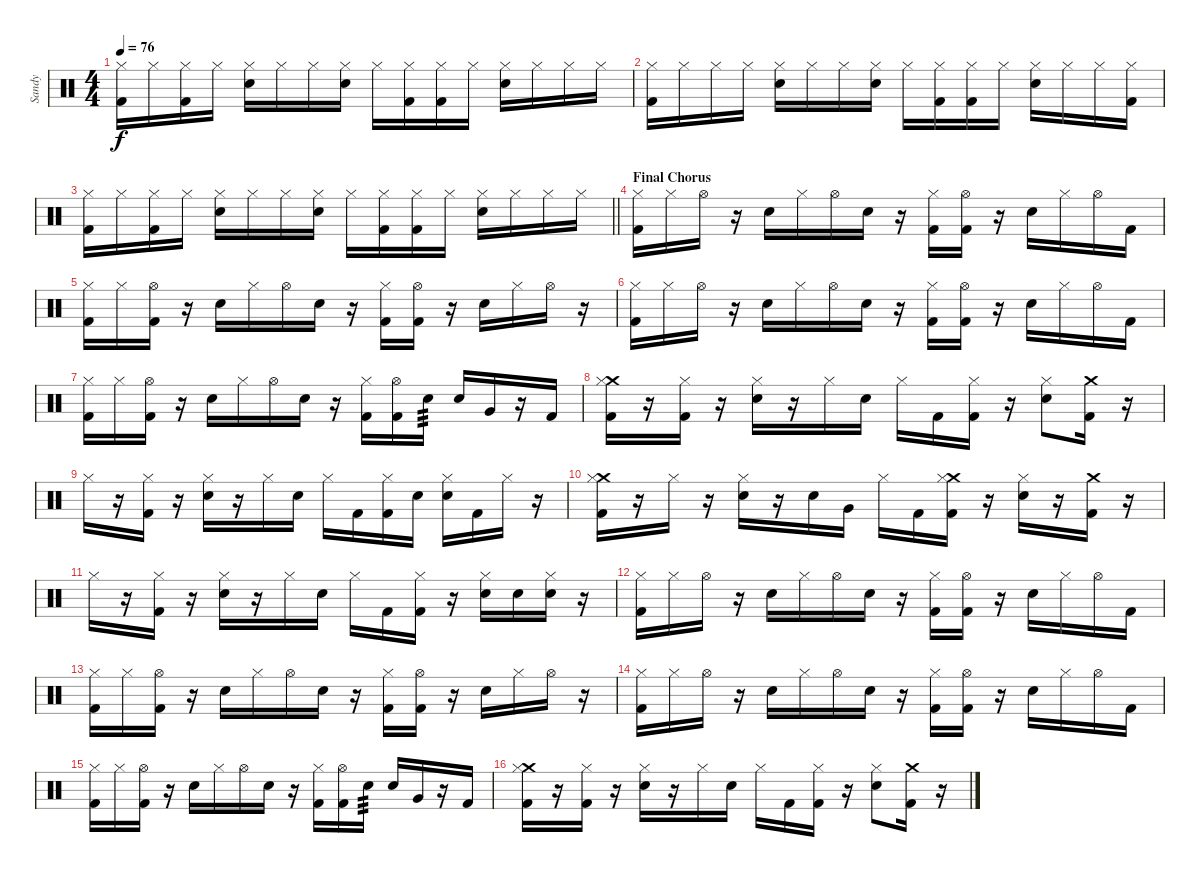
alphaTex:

\track ("Sandy" "Sandy") {instrument percussion}
\staff {score}
\articulation defaults
\ts (4 4)
\tempo 76
\clef neutral
\ks c
("Hi-Hat (closed)" "Kick (hit) 2").16{dy f} "Hi-Hat (closed)".16 ("Hi-Hat (closed)" "Kick (hit) 2").16 "Hi-Hat (closed)".16 ("Hi-Hat (closed)" "Electric Snare (hit)").16 "Hi-Hat (closed)".16 "Hi-Hat (closed)".16 ("Hi-Hat (closed)" "Electric Snare (hit)").16 "Hi-Hat (closed)".16 ("Hi-Hat (closed)" "Kick (hit) 2").16 ("Hi-Hat (closed)" "Kick (hit) 2").16 "Hi-Hat (closed)".16 ("Hi-Hat (closed)" "Electric Snare (hit)").16 "Hi-Hat (closed)".16 "Hi-Hat (closed)".16 "Hi-Hat (closed)".16 |
("Hi-Hat (closed)" "Kick (hit) 2").16 "Hi-Hat (closed)".16 "Hi-Hat (closed)".16 "Hi-Hat (closed)".16 ("Hi-Hat (closed)" "Electric Snare (hit)").16 "Hi-Hat (closed)".16 "Hi-Hat (closed)".16 ("Hi-Hat (closed)" "Electric Snare (hit)").16 "Hi-Hat (closed)".16 ("Hi-Hat (closed)" "Kick (hit) 2").16 ("Hi-Hat (closed)" "Kick (hit) 2").16 "Hi-Hat (closed)".16 ("Hi-Hat (closed)" "Electric Snare (hit)").16 "Hi-Hat (closed)".16 "Hi-Hat (closed)".16 ("Hi-Hat (closed)" "Kick (hit) 2").16 |
\barLineRight lightlight
("Hi-Hat (closed)" "Kick (hit) 2").16 "Hi-Hat (closed)".16 ("Hi-Hat (closed)" "Kick (hit) 2").16 "Hi-Hat (closed)".16 ("Hi-Hat (closed)" "Electric Snare (hit)").16 "Hi-Hat (closed)".16 "Hi-Hat (closed)".16 ("Hi-Hat (closed)" "Electric Snare (hit)").16 "Hi-Hat (closed)".16 ("Hi-Hat (closed)" "Kick (hit) 2").16 ("Hi-Hat (closed)" "Kick (hit) 2").16 "Hi-Hat (closed)".16 ("Hi-Hat (closed)" "Electric Snare (hit)").16 "Hi-Hat (closed)".16 "Hi-Hat (closed)".16 "Hi-Hat (closed)".16 |
\section ("" "Final Chorus")
("Hi-Hat (closed)" "Kick (hit) 2").16 "Hi-Hat (closed)".16 "Hi-Hat (open)".16 r.16 "Electric Snare (hit)".16 "Hi-Hat (closed)".16 "Hi-Hat (open)".16 "Electric Snare (hit)".16 r.16 ("Hi-Hat (closed)" "Kick (hit) 2").16 ("Hi-Hat (open)" "Kick (hit) 2").16 r.16 "Electric Snare (hit)".16 "Hi-Hat (closed)".16 "Hi-Hat (open)".16 "Kick (hit) 2".16 |
("Hi-Hat (closed)" "Kick (hit) 2").16 "Hi-Hat (closed)".16 ("Hi-Hat (open)" "Kick (hit) 2").16 r.16 "Electric Snare (hit)".16 "Hi-Hat (closed)".16 "Hi-Hat (open)".16 "Electric Snare (hit)".16 r.16 ("Hi-Hat (closed)" "Kick (hit) 2").16 ("Hi-Hat (open)" "Kick (hit) 2").16 r.16 "Electric Snare (hit)".16 "Hi-Hat (closed)".16 "Hi-Hat (open)".16 r.16 |
("Hi-Hat (closed)" "Kick (hit) 2").16 "Hi-Hat (closed)".16 "Hi-Hat (open)".16 r.16 "Electric Snare (hit)".16 "Hi-Hat (closed)".16 "Hi-Hat (open)".16 "Electric Snare (hit)".16 r.16 ("Hi-Hat (closed)" "Kick (hit) 2").16 ("Hi-Hat (open)" "Kick (hit) 2").16 r.16 "Electric Snare (hit)".16 "Hi-Hat (closed)".16 "Hi-Hat (open)".16 "Kick (hit) 2".16 |
("Hi-Hat (closed)" "Kick (hit) 2").16 "Hi-Hat (closed)".16 ("Hi-Hat (open)" "Kick (hit) 2").16 r.16 "Electric Snare (hit)".16 "Hi-Hat (closed)".16 "Hi-Hat (open)".16 "Electric Snare (hit)".16 r.16 ("Hi-Hat (closed)" "Kick (hit) 2").16 ("Hi-Hat (open)" "Kick (hit) 2").16 "Electric Snare (hit)".16{tp 3} "Electric Snare (hit)".16 "Very Low Tom (hit)".16 r.16 "Kick (hit) 2".16 |
("Crash medium (hit)" "Hi-Hat (closed)" "Kick (hit) 2").16 r.16 ("Hi-Hat (closed)" "Kick (hit) 2").16 r.16 ("Hi-Hat (closed)" "Electric Snare (hit)").16 r.16 "Hi-Hat (closed)".16 "Electric Snare (hit)".16 "Hi-Hat (closed)".16 "Kick (hit) 2".16 ("Hi-Hat (closed)" "Kick (hit) 2").16 r.16 ("Hi-Hat (closed)" "Electric Snare (hit)").8 ("Crash medium (hit)" "Kick (hit) 2").16 r.16 |
"Hi-Hat (closed)".16 r.16 ("Hi-Hat (closed)" "Kick (hit) 2").16 r.16 ("Hi-Hat (closed)" "Electric Snare (hit)").16 r.16 "Hi-Hat (closed)".16 "Electric Snare (hit)".16 "Hi-Hat (closed)".16 "Kick (hit) 2".16 ("Hi-Hat (closed)" "Kick (hit) 2").16 "Electric Snare (hit)".16 ("Hi-Hat (closed)" "Electric Snare (hit)").16 "Kick (hit) 2".16 "Hi-Hat (closed)".16 r.16 |
("Crash medium (hit)" "Hi-Hat (closed)" "Kick (hit) 2").16 r.16 "Hi-Hat (closed)".16 r.16 ("Hi-Hat (closed)" "Electric Snare (hit)").16 r.16 "Electric Snare (hit)".16 "Very Low Tom (hit)".16 "Hi-Hat (closed)".16 "Kick (hit) 2".16 ("Crash medium (hit)" "Hi-Hat (closed)" "Kick (hit) 2").16 r.16 ("Hi-Hat (closed)" "Electric Snare (hit)").16 r.16 ("Crash medium (hit)" "Kick (hit) 2").16 r.16 |
"Hi-Hat (closed)".16 r.16 ("Hi-Hat (closed)" "Kick (hit) 2").16 r.16 ("Hi-Hat (closed)" "Electric Snare (hit)").16 r.16 "Hi-Hat (closed)".16 "Electric Snare (hit)".16 "Hi-Hat (closed)".16 "Kick (hit) 2".16 ("Hi-Hat (closed)" "Kick (hit) 2").16 r.16 ("Hi-Hat (closed)" "Electric Snare (hit)").16 "Electric Snare (hit)".16 ("Hi-Hat (closed)" "Electric Snare (hit)").16 r.16 |
("Hi-Hat (closed)" "Kick (hit) 2").16 "Hi-Hat (closed)".16 "Hi-Hat (open)".16 r.16 "Electric Snare (hit)".16 "Hi-Hat (closed)".16 "Hi-Hat (open)".16 "Electric Snare (hit)".16 r.16 ("Hi-Hat (closed)" "Kick (hit) 2").16 ("Hi-Hat (open)" "Kick (hit) 2").16 r.16 "Electric Snare (hit)".16 "Hi-Hat (closed)".16 "Hi-Hat (open)".16 "Kick (hit) 2".16 |
("Hi-Hat (closed)" "Kick (hit) 2").16 "Hi-Hat (closed)".16 ("Hi-Hat (open)" "Kick (hit) 2").16 r.16 "Electric Snare (hit)".16 "Hi-Hat (closed)".16 "Hi-Hat (open)".16 "Electric Snare (hit)".16 r.16 ("Hi-Hat (closed)" "Kick (hit) 2").16 ("Hi-Hat (open)" "Kick (hit) 2").16 r.16 "Electric Snare (hit)".16 "Hi-Hat (closed)".16 "Hi-Hat (open)".16 r.16 |
("Hi-Hat (closed)" "Kick (hit) 2").16 "Hi-Hat (closed)".16 "Hi-Hat (open)".16 r.16 "Electric Snare (hit)".16 "Hi-Hat (closed)".16 "Hi-Hat (open)".16 "Electric Snare (hit)".16 r.16 ("Hi-Hat (closed)" "Kick (hit) 2").16 ("Hi-Hat (open)" "Kick (hit) 2").16 r.16 "Electric Snare (hit)".16 "Hi-Hat (closed)".16 "Hi-Hat (open)".16 "Kick (hit) 2".16 |
("Hi-Hat (closed)" "Kick (hit) 2").16 "Hi-Hat (closed)".16 ("Hi-Hat (open)" "Kick (hit) 2").16 r.16 "Electric Snare (hit)".16 "Hi-Hat (closed)".16 "Hi-Hat (open)".16 "Electric Snare (hit)".16 r.16 ("Hi-Hat (closed)" "Kick (hit) 2").16 ("Hi-Hat (open)" "Kick (hit) 2").16 "Electric Snare (hit)".16{tp 3} "Electric Snare (hit)".16 "Very Low Tom (hit)".16 r.16 "Kick (hit) 2".16 |
("Crash medium (hit)" "Hi-Hat (closed)" "Kick (hit) 2").16 r.16 ("Hi-Hat (closed)" "Kick (hit) 2").16 r.16 ("Hi-Hat (closed)" "Electric Snare (hit)").16 r.16 "Hi-Hat (closed)".16 "Electric Snare (hit)".16 "Hi-Hat (closed)".16 "Kick (hit) 2".16 ("Hi-Hat (closed)" "Kick (hit) 2").16 r.16 ("Hi-Hat (closed)" "Electric Snare (hit)").8 ("Crash medium (hit)" "Kick (hit) 2").16 r.16
